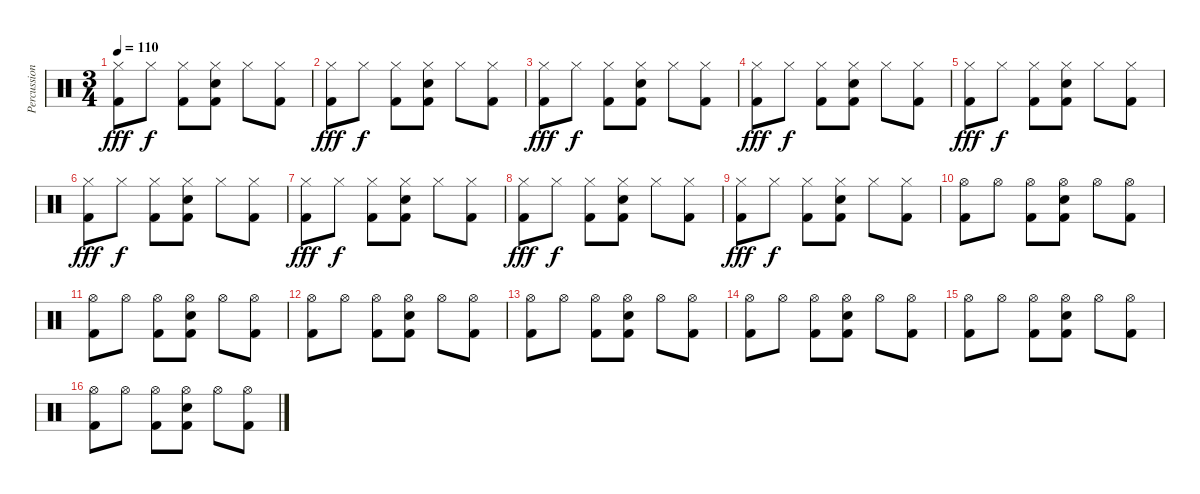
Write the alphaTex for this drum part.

\track ("Percussion" "Percussion") {instrument percussion}
\staff {score}
\articulation defaults
\ts (3 4)
\tempo 110
\clef neutral
\ks c
("Hi-Hat (closed)" "Kick (hit) 2").8{dy fff} "Hi-Hat (closed)".8{dy f} ("Hi-Hat (closed)" "Kick (hit) 2").8 ("Hi-Hat (closed)" "Electric Snare (hit)" "Kick (hit) 2").8 "Hi-Hat (closed)".8 ("Hi-Hat (closed)" "Kick (hit) 2").8 |
("Hi-Hat (closed)" "Kick (hit) 2").8{dy fff} "Hi-Hat (closed)".8{dy f} ("Hi-Hat (closed)" "Kick (hit) 2").8 ("Hi-Hat (closed)" "Electric Snare (hit)" "Kick (hit) 2").8 "Hi-Hat (closed)".8 ("Hi-Hat (closed)" "Kick (hit) 2").8 |
("Hi-Hat (closed)" "Kick (hit) 2").8{dy fff} "Hi-Hat (closed)".8{dy f} ("Hi-Hat (closed)" "Kick (hit) 2").8 ("Hi-Hat (closed)" "Electric Snare (hit)" "Kick (hit) 2").8 "Hi-Hat (closed)".8 ("Hi-Hat (closed)" "Kick (hit) 2").8 |
("Hi-Hat (closed)" "Kick (hit) 2").8{dy fff} "Hi-Hat (closed)".8{dy f} ("Hi-Hat (closed)" "Kick (hit) 2").8 ("Hi-Hat (closed)" "Electric Snare (hit)" "Kick (hit) 2").8 "Hi-Hat (closed)".8 ("Hi-Hat (closed)" "Kick (hit) 2").8 |
("Hi-Hat (closed)" "Kick (hit) 2").8{dy fff} "Hi-Hat (closed)".8{dy f} ("Hi-Hat (closed)" "Kick (hit) 2").8 ("Hi-Hat (closed)" "Electric Snare (hit)" "Kick (hit) 2").8 "Hi-Hat (closed)".8 ("Hi-Hat (closed)" "Kick (hit) 2").8 |
("Hi-Hat (closed)" "Kick (hit) 2").8{dy fff} "Hi-Hat (closed)".8{dy f} ("Hi-Hat (closed)" "Kick (hit) 2").8 ("Hi-Hat (closed)" "Electric Snare (hit)" "Kick (hit) 2").8 "Hi-Hat (closed)".8 ("Hi-Hat (closed)" "Kick (hit) 2").8 |
("Hi-Hat (closed)" "Kick (hit) 2").8{dy fff} "Hi-Hat (closed)".8{dy f} ("Hi-Hat (closed)" "Kick (hit) 2").8 ("Hi-Hat (closed)" "Electric Snare (hit)" "Kick (hit) 2").8 "Hi-Hat (closed)".8 ("Hi-Hat (closed)" "Kick (hit) 2").8 |
("Hi-Hat (closed)" "Kick (hit) 2").8{dy fff} "Hi-Hat (closed)".8{dy f} ("Hi-Hat (closed)" "Kick (hit) 2").8 ("Hi-Hat (closed)" "Electric Snare (hit)" "Kick (hit) 2").8 "Hi-Hat (closed)".8 ("Hi-Hat (closed)" "Kick (hit) 2").8 |
("Hi-Hat (closed)" "Kick (hit) 2").8{dy fff} "Hi-Hat (closed)".8{dy f} ("Hi-Hat (closed)" "Kick (hit) 2").8 ("Hi-Hat (closed)" "Electric Snare (hit)" "Kick (hit) 2").8 "Hi-Hat (closed)".8 ("Hi-Hat (closed)" "Kick (hit) 2").8 |
("Hi-Hat (open)" "Kick (hit) 2").8 "Hi-Hat (open)".8 ("Hi-Hat (open)" "Kick (hit) 2").8 ("Hi-Hat (open)" "Electric Snare (hit)" "Kick (hit) 2").8 "Hi-Hat (open)".8 ("Hi-Hat (open)" "Kick (hit) 2").8 |
("Hi-Hat (open)" "Kick (hit) 2").8 "Hi-Hat (open)".8 ("Hi-Hat (open)" "Kick (hit) 2").8 ("Hi-Hat (open)" "Electric Snare (hit)" "Kick (hit) 2").8 "Hi-Hat (open)".8 ("Hi-Hat (open)" "Kick (hit) 2").8 |
("Hi-Hat (open)" "Kick (hit) 2").8 "Hi-Hat (open)".8 ("Hi-Hat (open)" "Kick (hit) 2").8 ("Hi-Hat (open)" "Electric Snare (hit)" "Kick (hit) 2").8 "Hi-Hat (open)".8 ("Hi-Hat (open)" "Kick (hit) 2").8 |
("Hi-Hat (open)" "Kick (hit) 2").8 "Hi-Hat (open)".8 ("Hi-Hat (open)" "Kick (hit) 2").8 ("Hi-Hat (open)" "Electric Snare (hit)" "Kick (hit) 2").8 "Hi-Hat (open)".8 ("Hi-Hat (open)" "Kick (hit) 2").8 |
("Hi-Hat (open)" "Kick (hit) 2").8 "Hi-Hat (open)".8 ("Hi-Hat (open)" "Kick (hit) 2").8 ("Hi-Hat (open)" "Electric Snare (hit)" "Kick (hit) 2").8 "Hi-Hat (open)".8 ("Hi-Hat (open)" "Kick (hit) 2").8 |
("Hi-Hat (open)" "Kick (hit) 2").8 "Hi-Hat (open)".8 ("Hi-Hat (open)" "Kick (hit) 2").8 ("Hi-Hat (open)" "Electric Snare (hit)" "Kick (hit) 2").8 "Hi-Hat (open)".8 ("Hi-Hat (open)" "Kick (hit) 2").8 |
("Hi-Hat (open)" "Kick (hit) 2").8 "Hi-Hat (open)".8 ("Hi-Hat (open)" "Kick (hit) 2").8 ("Hi-Hat (open)" "Electric Snare (hit)" "Kick (hit) 2").8 "Hi-Hat (open)".8 ("Hi-Hat (open)" "Kick (hit) 2").8
